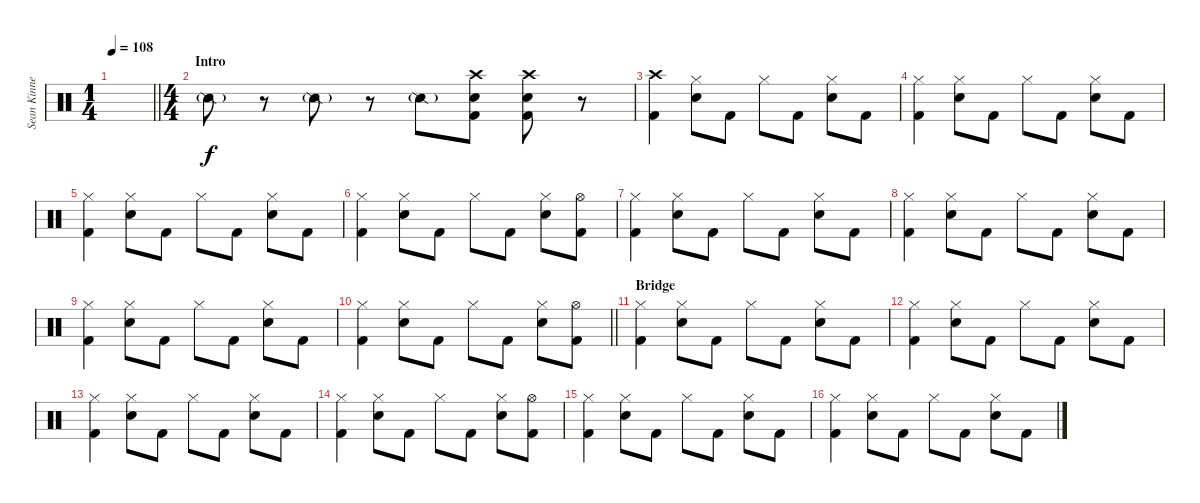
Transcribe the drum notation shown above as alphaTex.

\track ("Sean Kinney- Drums" "Sean Kinne") {instrument percussion}
\staff {score}
\articulation defaults
\ts (1 4)
\tempo 108
\clef neutral
\barLineRight lightlight
\ks c
|
\ts (4 4)
\section ("" "Intro")
"Snare (side stick) 2"{g}.8 r.8 "Snare (side stick) 2"{g}.8 r.8 "Snare (side stick) 2"{g}.8 ("Crash high (hit)" "Electric Snare (hit)" "Kick (hit) 2").8{dy f} ("Crash high (hit)" "Electric Snare (hit)" "Kick (hit) 2").8 r.8 |
("Crash high (hit)" "Kick (hit) 2").4 ("Hi-Hat (closed)" "Electric Snare (hit)").8 "Kick (hit) 2".8 "Hi-Hat (closed)".8 "Kick (hit) 2".8 ("Hi-Hat (closed)" "Electric Snare (hit)").8 "Kick (hit) 2".8 |
("Hi-Hat (closed)" "Kick (hit) 2").4 ("Hi-Hat (closed)" "Electric Snare (hit)").8 "Kick (hit) 2".8 "Hi-Hat (closed)".8 "Kick (hit) 2".8 ("Hi-Hat (closed)" "Electric Snare (hit)").8 "Kick (hit) 2".8 |
("Hi-Hat (closed)" "Kick (hit) 2").4 ("Hi-Hat (closed)" "Electric Snare (hit)").8 "Kick (hit) 2".8 "Hi-Hat (closed)".8 "Kick (hit) 2".8 ("Hi-Hat (closed)" "Electric Snare (hit)").8 "Kick (hit) 2".8 |
("Hi-Hat (closed)" "Kick (hit) 2").4 ("Hi-Hat (closed)" "Electric Snare (hit)").8 "Kick (hit) 2".8 "Hi-Hat (closed)".8 "Kick (hit) 2".8 ("Hi-Hat (closed)" "Electric Snare (hit)").8 ("Hi-Hat (open)" "Kick (hit) 2").8 |
("Hi-Hat (closed)" "Kick (hit) 2").4 ("Hi-Hat (closed)" "Electric Snare (hit)").8 "Kick (hit) 2".8 "Hi-Hat (closed)".8 "Kick (hit) 2".8 ("Hi-Hat (closed)" "Electric Snare (hit)").8 "Kick (hit) 2".8 |
("Hi-Hat (closed)" "Kick (hit) 2").4 ("Hi-Hat (closed)" "Electric Snare (hit)").8 "Kick (hit) 2".8 "Hi-Hat (closed)".8 "Kick (hit) 2".8 ("Hi-Hat (closed)" "Electric Snare (hit)").8 "Kick (hit) 2".8 |
("Hi-Hat (closed)" "Kick (hit) 2").4 ("Hi-Hat (closed)" "Electric Snare (hit)").8 "Kick (hit) 2".8 "Hi-Hat (closed)".8 "Kick (hit) 2".8 ("Hi-Hat (closed)" "Electric Snare (hit)").8 "Kick (hit) 2".8 |
\barLineRight lightlight
("Hi-Hat (closed)" "Kick (hit) 2").4 ("Hi-Hat (closed)" "Electric Snare (hit)").8 "Kick (hit) 2".8 "Hi-Hat (closed)".8 "Kick (hit) 2".8 ("Hi-Hat (closed)" "Electric Snare (hit)").8 ("Hi-Hat (open)" "Kick (hit) 2").8 |
\section ("" "Bridge")
("Hi-Hat (closed)" "Kick (hit) 2").4 ("Hi-Hat (closed)" "Electric Snare (hit)").8 "Kick (hit) 2".8 "Hi-Hat (closed)".8 "Kick (hit) 2".8 ("Hi-Hat (closed)" "Electric Snare (hit)").8 "Kick (hit) 2".8 |
("Hi-Hat (closed)" "Kick (hit) 2").4 ("Hi-Hat (closed)" "Electric Snare (hit)").8 "Kick (hit) 2".8 "Hi-Hat (closed)".8 "Kick (hit) 2".8 ("Hi-Hat (closed)" "Electric Snare (hit)").8 "Kick (hit) 2".8 |
("Hi-Hat (closed)" "Kick (hit) 2").4 ("Hi-Hat (closed)" "Electric Snare (hit)").8 "Kick (hit) 2".8 "Hi-Hat (closed)".8 "Kick (hit) 2".8 ("Hi-Hat (closed)" "Electric Snare (hit)").8 "Kick (hit) 2".8 |
("Hi-Hat (closed)" "Kick (hit) 2").4 ("Hi-Hat (closed)" "Electric Snare (hit)").8 "Kick (hit) 2".8 "Hi-Hat (closed)".8 "Kick (hit) 2".8 ("Hi-Hat (closed)" "Electric Snare (hit)").8 ("Hi-Hat (open)" "Kick (hit) 2").8 |
("Hi-Hat (closed)" "Kick (hit) 2").4 ("Hi-Hat (closed)" "Electric Snare (hit)").8 "Kick (hit) 2".8 "Hi-Hat (closed)".8 "Kick (hit) 2".8 ("Hi-Hat (closed)" "Electric Snare (hit)").8 "Kick (hit) 2".8 |
("Hi-Hat (closed)" "Kick (hit) 2").4 ("Hi-Hat (closed)" "Electric Snare (hit)").8 "Kick (hit) 2".8 "Hi-Hat (closed)".8 "Kick (hit) 2".8 ("Hi-Hat (closed)" "Electric Snare (hit)").8 "Kick (hit) 2".8
